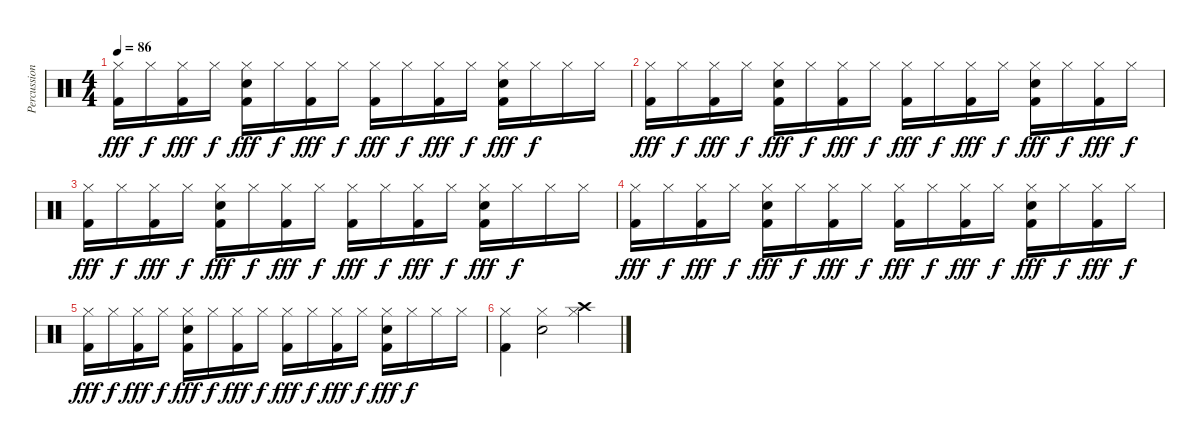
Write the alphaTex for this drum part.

\track ("Percussion" "Percussion") {instrument percussion}
\staff {score}
\articulation defaults
\ts (4 4)
\tempo 86
\clef neutral
\ks c
("Hi-Hat (closed)" "Kick (hit) 2").16{dy fff} "Hi-Hat (closed)".16{dy f} ("Hi-Hat (closed)" "Kick (hit) 2").16{dy fff} "Hi-Hat (closed)".16{dy f} ("Hi-Hat (closed)" "Electric Snare (hit)" "Kick (hit) 2").16{dy fff} "Hi-Hat (closed)".16{dy f} ("Hi-Hat (closed)" "Kick (hit) 2").16{dy fff} "Hi-Hat (closed)".16{dy f} ("Hi-Hat (closed)" "Kick (hit) 2").16{dy fff} "Hi-Hat (closed)".16{dy f} ("Hi-Hat (closed)" "Kick (hit) 2").16{dy fff} "Hi-Hat (closed)".16{dy f} ("Hi-Hat (closed)" "Electric Snare (hit)" "Kick (hit) 2").16{dy fff} "Hi-Hat (closed)".16{dy f} "Hi-Hat (closed)".16 "Hi-Hat (closed)".16 |
("Hi-Hat (closed)" "Kick (hit) 2").16{dy fff} "Hi-Hat (closed)".16{dy f} ("Hi-Hat (closed)" "Kick (hit) 2").16{dy fff} "Hi-Hat (closed)".16{dy f} ("Hi-Hat (closed)" "Electric Snare (hit)" "Kick (hit) 2").16{dy fff} "Hi-Hat (closed)".16{dy f} ("Hi-Hat (closed)" "Kick (hit) 2").16{dy fff} "Hi-Hat (closed)".16{dy f} ("Hi-Hat (closed)" "Kick (hit) 2").16{dy fff} "Hi-Hat (closed)".16{dy f} ("Hi-Hat (closed)" "Kick (hit) 2").16{dy fff} "Hi-Hat (closed)".16{dy f} ("Hi-Hat (closed)" "Electric Snare (hit)" "Kick (hit) 2").16{dy fff} "Hi-Hat (closed)".16{dy f} ("Hi-Hat (closed)" "Kick (hit) 2").16{dy fff} "Hi-Hat (closed)".16{dy f} |
("Hi-Hat (closed)" "Kick (hit) 2").16{dy fff} "Hi-Hat (closed)".16{dy f} ("Hi-Hat (closed)" "Kick (hit) 2").16{dy fff} "Hi-Hat (closed)".16{dy f} ("Hi-Hat (closed)" "Electric Snare (hit)" "Kick (hit) 2").16{dy fff} "Hi-Hat (closed)".16{dy f} ("Hi-Hat (closed)" "Kick (hit) 2").16{dy fff} "Hi-Hat (closed)".16{dy f} ("Hi-Hat (closed)" "Kick (hit) 2").16{dy fff} "Hi-Hat (closed)".16{dy f} ("Hi-Hat (closed)" "Kick (hit) 2").16{dy fff} "Hi-Hat (closed)".16{dy f} ("Hi-Hat (closed)" "Electric Snare (hit)" "Kick (hit) 2").16{dy fff} "Hi-Hat (closed)".16{dy f} "Hi-Hat (closed)".16 "Hi-Hat (closed)".16 |
("Hi-Hat (closed)" "Kick (hit) 2").16{dy fff} "Hi-Hat (closed)".16{dy f} ("Hi-Hat (closed)" "Kick (hit) 2").16{dy fff} "Hi-Hat (closed)".16{dy f} ("Hi-Hat (closed)" "Electric Snare (hit)" "Kick (hit) 2").16{dy fff} "Hi-Hat (closed)".16{dy f} ("Hi-Hat (closed)" "Kick (hit) 2").16{dy fff} "Hi-Hat (closed)".16{dy f} ("Hi-Hat (closed)" "Kick (hit) 2").16{dy fff} "Hi-Hat (closed)".16{dy f} ("Hi-Hat (closed)" "Kick (hit) 2").16{dy fff} "Hi-Hat (closed)".16{dy f} ("Hi-Hat (closed)" "Electric Snare (hit)" "Kick (hit) 2").16{dy fff} "Hi-Hat (closed)".16{dy f} ("Hi-Hat (closed)" "Kick (hit) 2").16{dy fff} "Hi-Hat (closed)".16{dy f} |
("Hi-Hat (closed)" "Kick (hit) 2").16{dy fff} "Hi-Hat (closed)".16{dy f} ("Hi-Hat (closed)" "Kick (hit) 2").16{dy fff} "Hi-Hat (closed)".16{dy f} ("Hi-Hat (closed)" "Electric Snare (hit)" "Kick (hit) 2").16{dy fff} "Hi-Hat (closed)".16{dy f} ("Hi-Hat (closed)" "Kick (hit) 2").16{dy fff} "Hi-Hat (closed)".16{dy f} ("Hi-Hat (closed)" "Kick (hit) 2").16{dy fff} "Hi-Hat (closed)".16{dy f} ("Hi-Hat (closed)" "Kick (hit) 2").16{dy fff} "Hi-Hat (closed)".16{dy f} ("Hi-Hat (closed)" "Electric Snare (hit)" "Kick (hit) 2").16{dy fff} "Hi-Hat (closed)".16{dy f} "Hi-Hat (closed)".16 "Hi-Hat (closed)".16 |
("Hi-Hat (closed)" "Kick (hit) 2").4 ("Hi-Hat (closed)" "Snare (hit) 2").2 ("Hi-Hat (closed)" "Crash high (hit)").4
